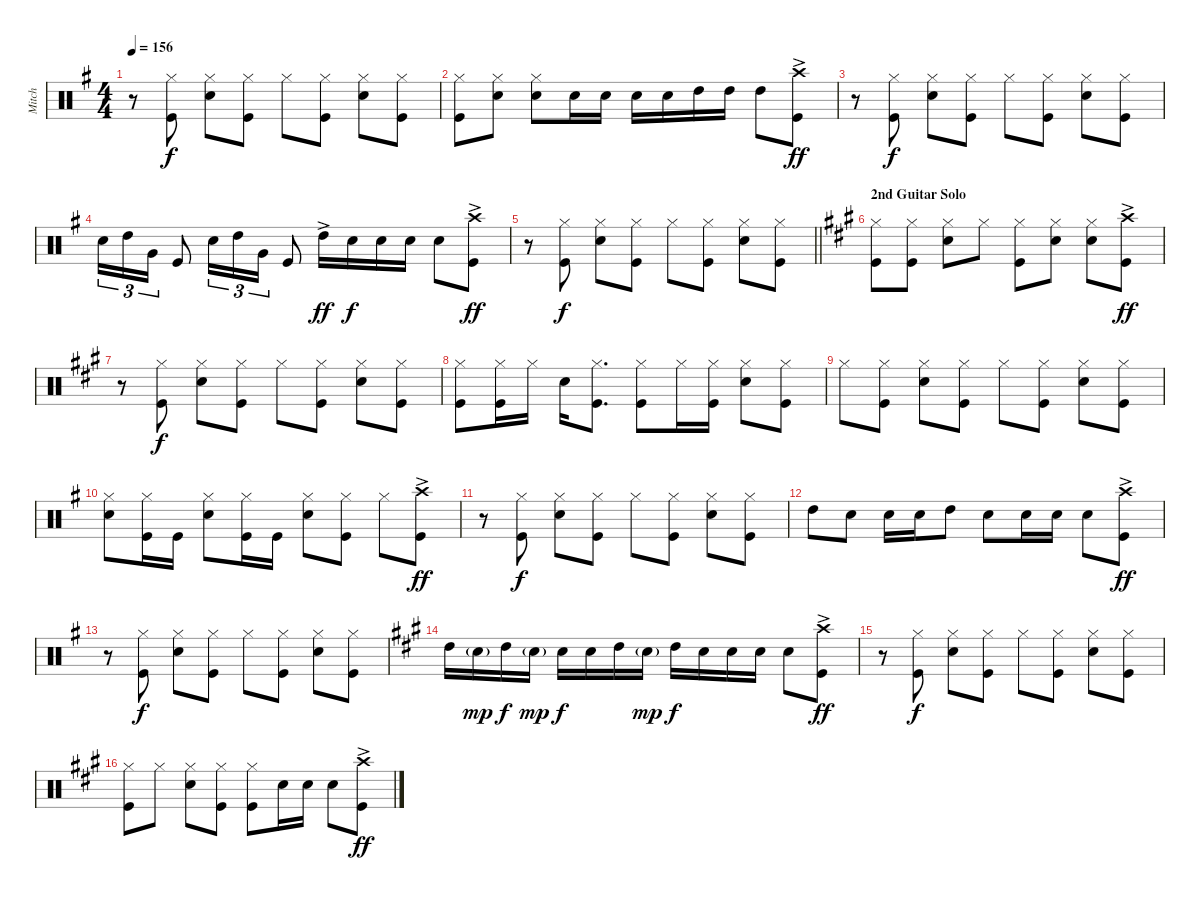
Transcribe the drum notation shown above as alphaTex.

\track ("Mitch" "Mitch") {instrument percussion}
\staff {score}
\articulation defaults
\ts (4 4)
\tempo 156
\clef neutral
\ks g
r.8{dy ff} ("Hi-Hat (closed)" "Kick (hit)").8{dy f} ("Hi-Hat (closed)" "Snare (hit) 2").8 ("Hi-Hat (closed)" "Kick (hit)").8 "Hi-Hat (closed)".8 ("Hi-Hat (closed)" "Kick (hit)").8 ("Hi-Hat (closed)" "Snare (hit) 2").8 ("Hi-Hat (closed)" "Kick (hit)").8 |
("Hi-Hat (closed)" "Kick (hit)").8 ("Hi-Hat (closed)" "Snare (hit) 2").8 ("Hi-Hat (closed)" "Snare (hit) 2").8 "Snare (hit) 2".16 "Snare (hit) 2".16 "Snare (hit) 2".16 "Snare (hit) 2".16 "High Tom (hit)".16 "High Tom (hit)".16 "High Tom (hit)".8 ("Crash high (hit)"{ac} "Kick (hit)").8{dy ff} |
r.8 ("Hi-Hat (closed)" "Kick (hit)").8{dy f} ("Hi-Hat (closed)" "Snare (hit) 2").8 ("Hi-Hat (closed)" "Kick (hit)").8 "Hi-Hat (closed)".8 ("Hi-Hat (closed)" "Kick (hit)").8 ("Hi-Hat (closed)" "Snare (hit) 2").8 ("Hi-Hat (closed)" "Kick (hit)").8 |
"Snare (hit) 2".16{tu (3 2)} "High Tom (hit)".16{tu (3 2)} "Very Low Tom (hit)".16{tu (3 2)} "Kick (hit)".8 "Snare (hit) 2".16{tu (3 2)} "High Tom (hit)".16{tu (3 2)} "Very Low Tom (hit)".16{tu (3 2)} "Kick (hit)".8 "High Tom (hit)"{ac}.16{dy ff} "Snare (hit) 2".16{dy f} "Snare (hit) 2".16 "Snare (hit) 2".16 "Snare (hit) 2".8 ("Crash high (hit)"{ac} "Kick (hit)").8{dy ff} |
\barLineRight lightlight
r.8 ("Hi-Hat (closed)" "Kick (hit)").8{dy f} ("Hi-Hat (closed)" "Snare (hit) 2").8 ("Hi-Hat (closed)" "Kick (hit)").8 "Hi-Hat (closed)".8 ("Hi-Hat (closed)" "Kick (hit)").8 ("Hi-Hat (closed)" "Snare (hit) 2").8 ("Hi-Hat (closed)" "Kick (hit)").8 |
\section ("" "2nd Guitar Solo")
\ks a
("Hi-Hat (closed)" "Kick (hit)").8 ("Hi-Hat (closed)" "Kick (hit)").8 ("Hi-Hat (closed)" "Snare (hit) 2").8 "Hi-Hat (closed)".8 ("Hi-Hat (closed)" "Kick (hit)").8 ("Hi-Hat (closed)" "Snare (hit) 2").8 ("Hi-Hat (closed)" "Snare (hit) 2").8 ("Crash high (hit)"{ac} "Kick (hit)").8{dy ff} |
r.8 ("Hi-Hat (closed)" "Kick (hit)").8{dy f} ("Hi-Hat (closed)" "Snare (hit) 2").8 ("Hi-Hat (closed)" "Kick (hit)").8 "Hi-Hat (closed)".8 ("Hi-Hat (closed)" "Kick (hit)").8 ("Hi-Hat (closed)" "Snare (hit) 2").8 ("Hi-Hat (closed)" "Kick (hit)").8 |
("Hi-Hat (closed)" "Kick (hit)").8 ("Hi-Hat (closed)" "Kick (hit)").16 "Hi-Hat (closed)".16 "Snare (hit) 2".16 ("Hi-Hat (closed)" "Kick (hit)").8{d} ("Hi-Hat (closed)" "Kick (hit)").8 "Hi-Hat (closed)".16 ("Hi-Hat (closed)" "Kick (hit)").16 ("Hi-Hat (closed)" "Snare (hit) 2").8 ("Hi-Hat (closed)" "Kick (hit)").8 |
"Hi-Hat (closed)".8 ("Hi-Hat (closed)" "Kick (hit)").8 ("Hi-Hat (closed)" "Snare (hit) 2").8 ("Hi-Hat (closed)" "Kick (hit)").8 "Hi-Hat (closed)".8 ("Hi-Hat (closed)" "Kick (hit)").8 ("Hi-Hat (closed)" "Snare (hit) 2").8 ("Hi-Hat (closed)" "Kick (hit)").8 |
\ks g
("Hi-Hat (closed)" "Snare (hit) 2").8 ("Hi-Hat (closed)" "Kick (hit)").16 "Kick (hit)".16 ("Hi-Hat (closed)" "Snare (hit) 2").8 ("Hi-Hat (closed)" "Kick (hit)").16 "Kick (hit)".16 ("Hi-Hat (closed)" "Snare (hit) 2").8 ("Hi-Hat (closed)" "Kick (hit)").8 "Hi-Hat (closed)".8 ("Crash high (hit)"{ac} "Kick (hit)").8{dy ff} |
r.8 ("Hi-Hat (closed)" "Kick (hit)").8{dy f} ("Hi-Hat (closed)" "Snare (hit) 2").8 ("Hi-Hat (closed)" "Kick (hit)").8 "Hi-Hat (closed)".8 ("Hi-Hat (closed)" "Kick (hit)").8 ("Hi-Hat (closed)" "Snare (hit) 2").8 ("Hi-Hat (closed)" "Kick (hit)").8 |
"High Tom (hit)".8 "Snare (hit) 2".8 "Snare (hit) 2".16 "Snare (hit) 2".16 "High Tom (hit)".8 "Snare (hit) 2".8 "Snare (hit) 2".16 "Snare (hit) 2".16 "Snare (hit) 2".8 ("Crash high (hit)"{ac} "Kick (hit)").8{dy ff} |
r.8 ("Hi-Hat (closed)" "Kick (hit)").8{dy f} ("Hi-Hat (closed)" "Snare (hit) 2").8 ("Hi-Hat (closed)" "Kick (hit)").8 "Hi-Hat (closed)".8 ("Hi-Hat (closed)" "Kick (hit)").8 ("Hi-Hat (closed)" "Snare (hit) 2").8 ("Hi-Hat (closed)" "Kick (hit)").8 |
\ks a "High Tom (hit)".16 "Snare (hit) 2"{g}.16{dy mp} "High Tom (hit)".16{dy f} "Snare (hit) 2"{g}.16{dy mp} "Snare (hit) 2".16{dy f} "Snare (hit) 2".16 "High Tom (hit)".16 "Snare (hit) 2"{g}.16{dy mp} "High Tom (hit)".16{dy f} "Snare (hit) 2".16 "Snare (hit) 2".16 "Snare (hit) 2".16 "Snare (hit) 2".8
("Crash high (hit)"{ac} "Kick (hit)").8{dy ff} |
r.8 ("Hi-Hat (closed)" "Kick (hit)").8{dy f} ("Hi-Hat (closed)" "Snare (hit) 2").8 ("Hi-Hat (closed)" "Kick (hit)").8 "Hi-Hat (closed)".8 ("Hi-Hat (closed)" "Kick (hit)").8 ("Hi-Hat (closed)" "Snare (hit) 2").8 ("Hi-Hat (closed)" "Kick (hit)").8 |
("Hi-Hat (closed)" "Kick (hit)").8 "Hi-Hat (closed)".8 ("Hi-Hat (closed)" "Snare (hit) 2").8 ("Hi-Hat (closed)" "Kick (hit)").8 ("Hi-Hat (closed)" "Kick (hit)").8 "Snare (hit) 2".16 "Snare (hit) 2".16 "Snare (hit) 2".8 ("Crash high (hit)"{ac} "Kick (hit)").8{dy ff}
